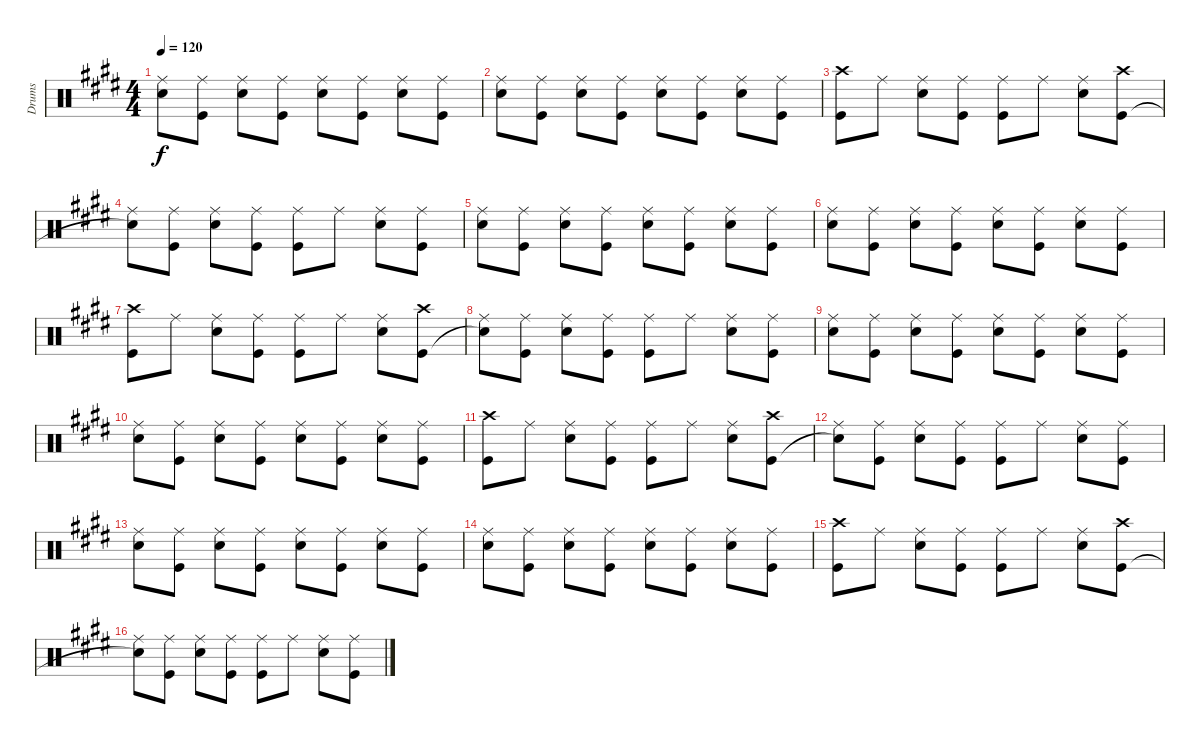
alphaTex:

\track ("Drums" "Drums") {instrument percussion}
\staff {score}
\articulation defaults
\ts (4 4)
\tempo 120
\clef neutral
\ks e
("Ride (middle)" "Snare (hit) 2").8{dy f} ("Ride (middle)" "Kick (hit)").8 ("Ride (middle)" "Snare (hit) 2").8 ("Ride (middle)" "Kick (hit)").8 ("Ride (middle)" "Snare (hit) 2").8 ("Ride (middle)" "Kick (hit)").8 ("Ride (middle)" "Snare (hit) 2").8 ("Ride (middle)" "Kick (hit)").8 |
("Ride (middle)" "Snare (hit) 2").8 ("Ride (middle)" "Kick (hit)").8 ("Ride (middle)" "Snare (hit) 2").8 ("Ride (middle)" "Kick (hit)").8 ("Ride (middle)" "Snare (hit) 2").8 ("Ride (middle)" "Kick (hit)").8 ("Ride (middle)" "Snare (hit) 2").8 ("Ride (middle)" "Kick (hit)").8 |
("Crash high (hit)" "Kick (hit)").8 "Ride (middle)".8 ("Ride (middle)" "Snare (hit) 2").8 ("Ride (middle)" "Kick (hit)").8 ("Ride (middle)" "Kick (hit)").8 "Ride (middle)".8 ("Ride (middle)" "Snare (hit) 2").8 ("Crash high (hit)" "Kick (hit)").8 |
("Ride (middle)" "Snare (hit)"{t}).8 ("Ride (middle)" "Kick (hit)").8 ("Ride (middle)" "Snare (hit) 2").8 ("Ride (middle)" "Kick (hit)").8 ("Ride (middle)" "Kick (hit)").8 "Ride (middle)".8 ("Ride (middle)" "Snare (hit) 2").8 ("Ride (middle)" "Kick (hit)").8 |
("Ride (middle)" "Snare (hit) 2").8 ("Ride (middle)" "Kick (hit)").8 ("Ride (middle)" "Snare (hit) 2").8 ("Ride (middle)" "Kick (hit)").8 ("Ride (middle)" "Snare (hit) 2").8 ("Ride (middle)" "Kick (hit)").8 ("Ride (middle)" "Snare (hit) 2").8 ("Ride (middle)" "Kick (hit)").8 |
("Ride (middle)" "Snare (hit) 2").8 ("Ride (middle)" "Kick (hit)").8 ("Ride (middle)" "Snare (hit) 2").8 ("Ride (middle)" "Kick (hit)").8 ("Ride (middle)" "Snare (hit) 2").8 ("Ride (middle)" "Kick (hit)").8 ("Ride (middle)" "Snare (hit) 2").8 ("Ride (middle)" "Kick (hit)").8 |
("Crash high (hit)" "Kick (hit)").8 "Ride (middle)".8 ("Ride (middle)" "Snare (hit) 2").8 ("Ride (middle)" "Kick (hit)").8 ("Ride (middle)" "Kick (hit)").8 "Ride (middle)".8 ("Ride (middle)" "Snare (hit) 2").8 ("Crash high (hit)" "Kick (hit)").8 |
("Ride (middle)" "Snare (hit)"{t}).8 ("Ride (middle)" "Kick (hit)").8 ("Ride (middle)" "Snare (hit) 2").8 ("Ride (middle)" "Kick (hit)").8 ("Ride (middle)" "Kick (hit)").8 "Ride (middle)".8 ("Ride (middle)" "Snare (hit) 2").8 ("Ride (middle)" "Kick (hit)").8 |
("Ride (middle)" "Snare (hit) 2").8 ("Ride (middle)" "Kick (hit)").8 ("Ride (middle)" "Snare (hit) 2").8 ("Ride (middle)" "Kick (hit)").8 ("Ride (middle)" "Snare (hit) 2").8 ("Ride (middle)" "Kick (hit)").8 ("Ride (middle)" "Snare (hit) 2").8 ("Ride (middle)" "Kick (hit)").8 |
("Ride (middle)" "Snare (hit) 2").8 ("Ride (middle)" "Kick (hit)").8 ("Ride (middle)" "Snare (hit) 2").8 ("Ride (middle)" "Kick (hit)").8 ("Ride (middle)" "Snare (hit) 2").8 ("Ride (middle)" "Kick (hit)").8 ("Ride (middle)" "Snare (hit) 2").8 ("Ride (middle)" "Kick (hit)").8 |
("Crash high (hit)" "Kick (hit)").8 "Ride (middle)".8 ("Ride (middle)" "Snare (hit) 2").8 ("Ride (middle)" "Kick (hit)").8 ("Ride (middle)" "Kick (hit)").8 "Ride (middle)".8 ("Ride (middle)" "Snare (hit) 2").8 ("Crash high (hit)" "Kick (hit)").8 |
("Ride (middle)" "Snare (hit)"{t}).8 ("Ride (middle)" "Kick (hit)").8 ("Ride (middle)" "Snare (hit) 2").8 ("Ride (middle)" "Kick (hit)").8 ("Ride (middle)" "Kick (hit)").8 "Ride (middle)".8 ("Ride (middle)" "Snare (hit) 2").8 ("Ride (middle)" "Kick (hit)").8 |
("Ride (middle)" "Snare (hit) 2").8 ("Ride (middle)" "Kick (hit)").8 ("Ride (middle)" "Snare (hit) 2").8 ("Ride (middle)" "Kick (hit)").8 ("Ride (middle)" "Snare (hit) 2").8 ("Ride (middle)" "Kick (hit)").8 ("Ride (middle)" "Snare (hit) 2").8 ("Ride (middle)" "Kick (hit)").8 |
("Ride (middle)" "Snare (hit) 2").8 ("Ride (middle)" "Kick (hit)").8 ("Ride (middle)" "Snare (hit) 2").8 ("Ride (middle)" "Kick (hit)").8 ("Ride (middle)" "Snare (hit) 2").8 ("Ride (middle)" "Kick (hit)").8 ("Ride (middle)" "Snare (hit) 2").8 ("Ride (middle)" "Kick (hit)").8 |
("Crash high (hit)" "Kick (hit)").8 "Ride (middle)".8 ("Ride (middle)" "Snare (hit) 2").8 ("Ride (middle)" "Kick (hit)").8 ("Ride (middle)" "Kick (hit)").8 "Ride (middle)".8 ("Ride (middle)" "Snare (hit) 2").8 ("Crash high (hit)" "Kick (hit)").8 |
("Ride (middle)" "Snare (hit)"{t}).8 ("Ride (middle)" "Kick (hit)").8 ("Ride (middle)" "Snare (hit) 2").8 ("Ride (middle)" "Kick (hit)").8 ("Ride (middle)" "Kick (hit)").8 "Ride (middle)".8 ("Ride (middle)" "Snare (hit) 2").8 ("Ride (middle)" "Kick (hit)").8
